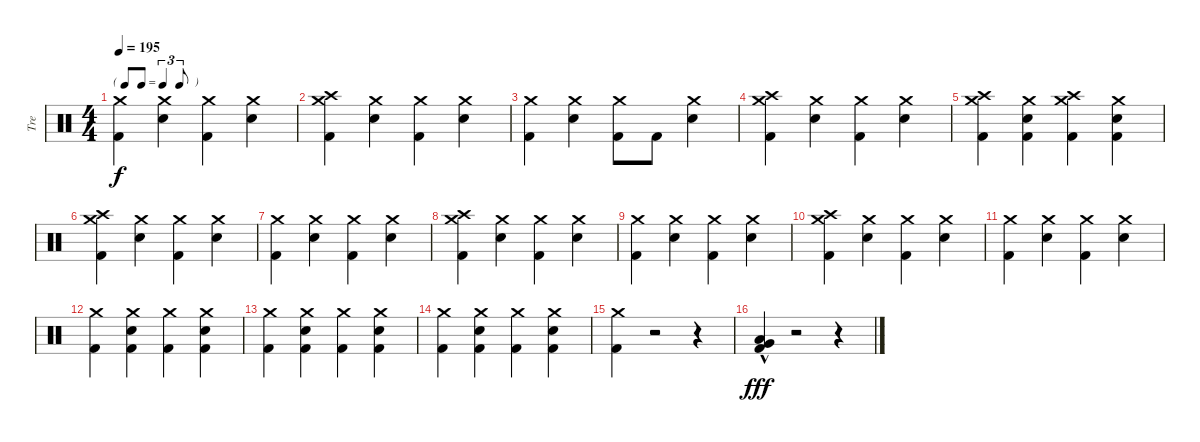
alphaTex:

\track ("Tre" "Tre") {instrument percussion}
\staff {score}
\articulation defaults
\ts (4 4)
\tf triplet8th
\tempo 195
\clef neutral
\ks c
("Crash medium (hit)" "Kick (hit) 2").4{dy f} ("Crash medium (hit)" "Snare (hit) 2").4 ("Crash medium (hit)" "Kick (hit) 2").4 ("Crash medium (hit)" "Snare (hit) 2").4 |
("Crash medium (hit)" "Crash high (hit)" "Kick (hit) 2").4 ("Crash medium (hit)" "Snare (hit) 2").4 ("Crash medium (hit)" "Kick (hit) 2").4 ("Crash medium (hit)" "Snare (hit) 2").4 |
("Crash medium (hit)" "Kick (hit) 2").4 ("Crash medium (hit)" "Snare (hit) 2").4 ("Crash medium (hit)" "Kick (hit) 2").8 "Kick (hit) 2".8 ("Crash medium (hit)" "Snare (hit) 2").4 |
("Crash medium (hit)" "Crash high (hit)" "Kick (hit) 2").4 ("Crash medium (hit)" "Snare (hit) 2").4 ("Crash medium (hit)" "Kick (hit) 2").4 ("Crash medium (hit)" "Snare (hit) 2").4 |
("Crash medium (hit)" "Crash high (hit)" "Kick (hit) 2").4 ("Crash medium (hit)" "Snare (hit) 2" "Kick (hit) 2").4 ("Crash medium (hit)" "Crash high (hit)" "Kick (hit) 2").4 ("Crash medium (hit)" "Snare (hit) 2" "Kick (hit) 2").4 |
("Crash medium (hit)" "Crash high (hit)" "Kick (hit) 2").4 ("Crash medium (hit)" "Snare (hit) 2").4 ("Crash medium (hit)" "Kick (hit) 2").4 ("Crash medium (hit)" "Snare (hit) 2").4 |
("Crash medium (hit)" "Kick (hit) 2").4 ("Crash medium (hit)" "Snare (hit) 2").4 ("Crash medium (hit)" "Kick (hit) 2").4 ("Crash medium (hit)" "Snare (hit) 2").4 |
("Crash medium (hit)" "Crash high (hit)" "Kick (hit) 2").4 ("Crash medium (hit)" "Snare (hit) 2").4 ("Crash medium (hit)" "Kick (hit) 2").4 ("Crash medium (hit)" "Snare (hit) 2").4 |
("Crash medium (hit)" "Kick (hit) 2").4 ("Crash medium (hit)" "Snare (hit) 2").4 ("Crash medium (hit)" "Kick (hit) 2").4 ("Crash medium (hit)" "Snare (hit) 2").4 |
("Crash medium (hit)" "Crash high (hit)" "Kick (hit) 2").4 ("Crash medium (hit)" "Snare (hit) 2").4 ("Crash medium (hit)" "Kick (hit) 2").4 ("Crash medium (hit)" "Snare (hit) 2").4 |
("Crash medium (hit)" "Kick (hit) 2").4 ("Crash medium (hit)" "Snare (hit) 2").4 ("Crash medium (hit)" "Kick (hit) 2").4 ("Crash medium (hit)" "Snare (hit) 2").4 |
("Crash medium (hit)" "Kick (hit) 2").4 ("Crash medium (hit)" "Snare (hit) 2" "Kick (hit) 2").4 ("Crash medium (hit)" "Kick (hit) 2").4 ("Crash medium (hit)" "Snare (hit) 2" "Kick (hit) 2").4 |
("Crash medium (hit)" "Kick (hit) 2").4 ("Crash medium (hit)" "Snare (hit) 2" "Kick (hit) 2").4 ("Crash medium (hit)" "Kick (hit) 2").4 ("Crash medium (hit)" "Snare (hit) 2" "Kick (hit) 2").4 |
("Crash medium (hit)" "Kick (hit) 2").4 ("Crash medium (hit)" "Snare (hit) 2" "Kick (hit) 2").4 ("Crash medium (hit)" "Kick (hit) 2").4 ("Crash medium (hit)" "Snare (hit) 2" "Kick (hit) 2").4 |
("Crash medium (hit)" "Kick (hit) 2").4 r.2 r.4 |
("Very Low Tom (hit)"{hac} "Low Floor Tom (hit)"{hac} "Kick (hit) 2"{hac}).4{dy fff} r.2 r.4
